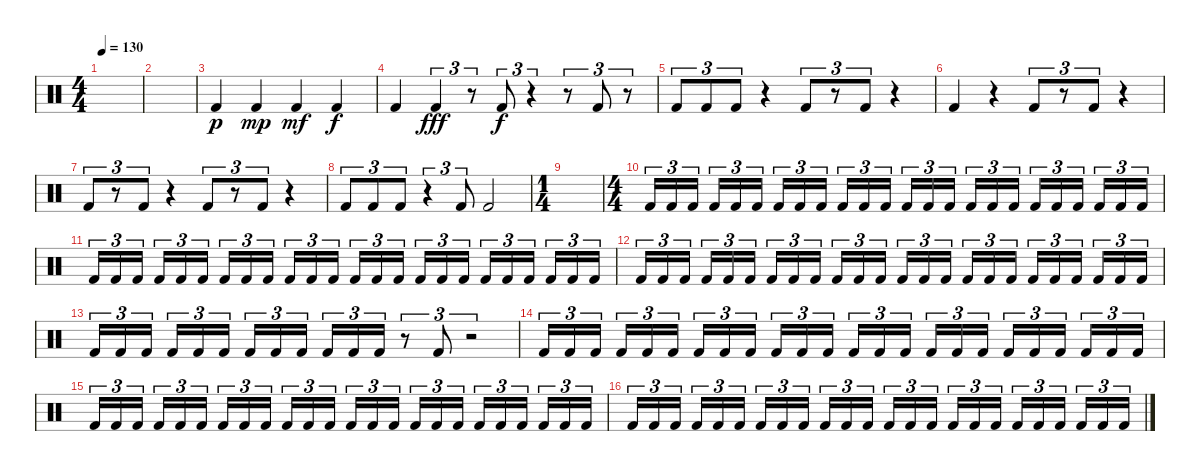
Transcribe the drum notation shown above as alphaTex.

\track "" {instrument percussion}
\staff {score}
\articulation defaults
\ts (4 4)
\tempo 130
\clef neutral
\ks c
|
|
"Kick (hit) 2".4{dy p} "Kick (hit) 2".4{dy mp} "Kick (hit) 2".4{dy mf} "Kick (hit) 2".4{dy f} |
"Kick (hit) 2".4 "Kick (hit) 2".4{tu (3 2) dy fff} r.8{tu (3 2)} "Kick (hit) 2".8{tu (3 2) dy f} r.4{tu (3 2)} r.8{tu (3 2)} "Kick (hit) 2".8{tu (3 2)} r.8{tu (3 2)} |
"Kick (hit) 2".8{tu (3 2)} "Kick (hit) 2".8{tu (3 2)} "Kick (hit) 2".8{tu (3 2)} r.4 "Kick (hit) 2".8{tu (3 2)} r.8{tu (3 2)} "Kick (hit) 2".8{tu (3 2)} r.4 |
"Kick (hit) 2".4 r.4 "Kick (hit) 2".8{tu (3 2)} r.8{tu (3 2)} "Kick (hit) 2".8{tu (3 2)} r.4 |
"Kick (hit) 2".8{tu (3 2)} r.8{tu (3 2)} "Kick (hit) 2".8{tu (3 2)} r.4 "Kick (hit) 2".8{tu (3 2)} r.8{tu (3 2)} "Kick (hit) 2".8{tu (3 2)} r.4 |
"Kick (hit) 2".8{tu (3 2)} "Kick (hit) 2".8{tu (3 2)} "Kick (hit) 2".8{tu (3 2)} r.4{tu (3 2)} "Kick (hit) 2".8{tu (3 2)} "Kick (hit) 2".2 |
\ts (1 4)
|
\ts (4 4)
"Kick (hit) 2".16{tu (3 2)} "Kick (hit) 2".16{tu (3 2)} "Kick (hit) 2".16{tu (3 2)} "Kick (hit) 2".16{tu (3 2)} "Kick (hit) 2".16{tu (3 2)} "Kick (hit) 2".16{tu (3 2)} "Kick (hit) 2".16{tu (3 2)} "Kick (hit) 2".16{tu (3 2)} "Kick (hit) 2".16{tu (3 2)} "Kick (hit) 2".16{tu (3 2)} "Kick (hit) 2".16{tu (3 2)} "Kick (hit) 2".16{tu (3 2)} "Kick (hit) 2".16{tu (3 2)} "Kick (hit) 2".16{tu (3 2)} "Kick (hit) 2".16{tu (3 2)} "Kick (hit) 2".16{tu (3 2)} "Kick (hit) 2".16{tu (3 2)} "Kick (hit) 2".16{tu (3 2)} "Kick (hit) 2".16{tu (3 2)} "Kick (hit) 2".16{tu (3 2)} "Kick (hit) 2".16{tu (3 2)} "Kick (hit) 2".16{tu (3 2)} "Kick (hit) 2".16{tu (3 2)} "Kick (hit) 2".16{tu (3 2)} |
"Kick (hit) 2".16{tu (3 2)} "Kick (hit) 2".16{tu (3 2)} "Kick (hit) 2".16{tu (3 2)} "Kick (hit) 2".16{tu (3 2)} "Kick (hit) 2".16{tu (3 2)} "Kick (hit) 2".16{tu (3 2)} "Kick (hit) 2".16{tu (3 2)} "Kick (hit) 2".16{tu (3 2)} "Kick (hit) 2".16{tu (3 2)} "Kick (hit) 2".16{tu (3 2)} "Kick (hit) 2".16{tu (3 2)} "Kick (hit) 2".16{tu (3 2)} "Kick (hit) 2".16{tu (3 2)} "Kick (hit) 2".16{tu (3 2)} "Kick (hit) 2".16{tu (3 2)} "Kick (hit) 2".16{tu (3 2)} "Kick (hit) 2".16{tu (3 2)} "Kick (hit) 2".16{tu (3 2)} "Kick (hit) 2".16{tu (3 2)} "Kick (hit) 2".16{tu (3 2)} "Kick (hit) 2".16{tu (3 2)} "Kick (hit) 2".16{tu (3 2)} "Kick (hit) 2".16{tu (3 2)} "Kick (hit) 2".16{tu (3 2)} |
"Kick (hit) 2".16{tu (3 2)} "Kick (hit) 2".16{tu (3 2)} "Kick (hit) 2".16{tu (3 2)} "Kick (hit) 2".16{tu (3 2)} "Kick (hit) 2".16{tu (3 2)} "Kick (hit) 2".16{tu (3 2)} "Kick (hit) 2".16{tu (3 2)} "Kick (hit) 2".16{tu (3 2)} "Kick (hit) 2".16{tu (3 2)} "Kick (hit) 2".16{tu (3 2)} "Kick (hit) 2".16{tu (3 2)} "Kick (hit) 2".16{tu (3 2)} "Kick (hit) 2".16{tu (3 2)} "Kick (hit) 2".16{tu (3 2)} "Kick (hit) 2".16{tu (3 2)} "Kick (hit) 2".16{tu (3 2)} "Kick (hit) 2".16{tu (3 2)} "Kick (hit) 2".16{tu (3 2)} "Kick (hit) 2".16{tu (3 2)} "Kick (hit) 2".16{tu (3 2)} "Kick (hit) 2".16{tu (3 2)} "Kick (hit) 2".16{tu (3 2)} "Kick (hit) 2".16{tu (3 2)} "Kick (hit) 2".16{tu (3 2)} |
"Kick (hit) 2".16{tu (3 2)} "Kick (hit) 2".16{tu (3 2)} "Kick (hit) 2".16{tu (3 2)} "Kick (hit) 2".16{tu (3 2)} "Kick (hit) 2".16{tu (3 2)} "Kick (hit) 2".16{tu (3 2)} "Kick (hit) 2".16{tu (3 2)} "Kick (hit) 2".16{tu (3 2)} "Kick (hit) 2".16{tu (3 2)} "Kick (hit) 2".16{tu (3 2)} "Kick (hit) 2".16{tu (3 2)} "Kick (hit) 2".16{tu (3 2)} r.8{tu (3 2)} "Kick (hit) 2".8{tu (3 2)} r.2{tu (3 2)} |
"Kick (hit) 2".16{tu (3 2)} "Kick (hit) 2".16{tu (3 2)} "Kick (hit) 2".16{tu (3 2)} "Kick (hit) 2".16{tu (3 2)} "Kick (hit) 2".16{tu (3 2)} "Kick (hit) 2".16{tu (3 2)} "Kick (hit) 2".16{tu (3 2)} "Kick (hit) 2".16{tu (3 2)} "Kick (hit) 2".16{tu (3 2)} "Kick (hit) 2".16{tu (3 2)} "Kick (hit) 2".16{tu (3 2)} "Kick (hit) 2".16{tu (3 2)} "Kick (hit) 2".16{tu (3 2)} "Kick (hit) 2".16{tu (3 2)} "Kick (hit) 2".16{tu (3 2)} "Kick (hit) 2".16{tu (3 2)} "Kick (hit) 2".16{tu (3 2)} "Kick (hit) 2".16{tu (3 2)} "Kick (hit) 2".16{tu (3 2)} "Kick (hit) 2".16{tu (3 2)} "Kick (hit) 2".16{tu (3 2)} "Kick (hit) 2".16{tu (3 2)} "Kick (hit) 2".16{tu (3 2)} "Kick (hit) 2".16{tu (3 2)} |
"Kick (hit) 2".16{tu (3 2)} "Kick (hit) 2".16{tu (3 2)} "Kick (hit) 2".16{tu (3 2)} "Kick (hit) 2".16{tu (3 2)} "Kick (hit) 2".16{tu (3 2)} "Kick (hit) 2".16{tu (3 2)} "Kick (hit) 2".16{tu (3 2)} "Kick (hit) 2".16{tu (3 2)} "Kick (hit) 2".16{tu (3 2)} "Kick (hit) 2".16{tu (3 2)} "Kick (hit) 2".16{tu (3 2)} "Kick (hit) 2".16{tu (3 2)} "Kick (hit) 2".16{tu (3 2)} "Kick (hit) 2".16{tu (3 2)} "Kick (hit) 2".16{tu (3 2)} "Kick (hit) 2".16{tu (3 2)} "Kick (hit) 2".16{tu (3 2)} "Kick (hit) 2".16{tu (3 2)} "Kick (hit) 2".16{tu (3 2)} "Kick (hit) 2".16{tu (3 2)} "Kick (hit) 2".16{tu (3 2)} "Kick (hit) 2".16{tu (3 2)} "Kick (hit) 2".16{tu (3 2)} "Kick (hit) 2".16{tu (3 2)} |
"Kick (hit) 2".16{tu (3 2)} "Kick (hit) 2".16{tu (3 2)} "Kick (hit) 2".16{tu (3 2)} "Kick (hit) 2".16{tu (3 2)} "Kick (hit) 2".16{tu (3 2)} "Kick (hit) 2".16{tu (3 2)} "Kick (hit) 2".16{tu (3 2)} "Kick (hit) 2".16{tu (3 2)} "Kick (hit) 2".16{tu (3 2)} "Kick (hit) 2".16{tu (3 2)} "Kick (hit) 2".16{tu (3 2)} "Kick (hit) 2".16{tu (3 2)} "Kick (hit) 2".16{tu (3 2)} "Kick (hit) 2".16{tu (3 2)} "Kick (hit) 2".16{tu (3 2)} "Kick (hit) 2".16{tu (3 2)} "Kick (hit) 2".16{tu (3 2)} "Kick (hit) 2".16{tu (3 2)} "Kick (hit) 2".16{tu (3 2)} "Kick (hit) 2".16{tu (3 2)} "Kick (hit) 2".16{tu (3 2)} "Kick (hit) 2".16{tu (3 2)} "Kick (hit) 2".16{tu (3 2)} "Kick (hit) 2".16{tu (3 2)}
